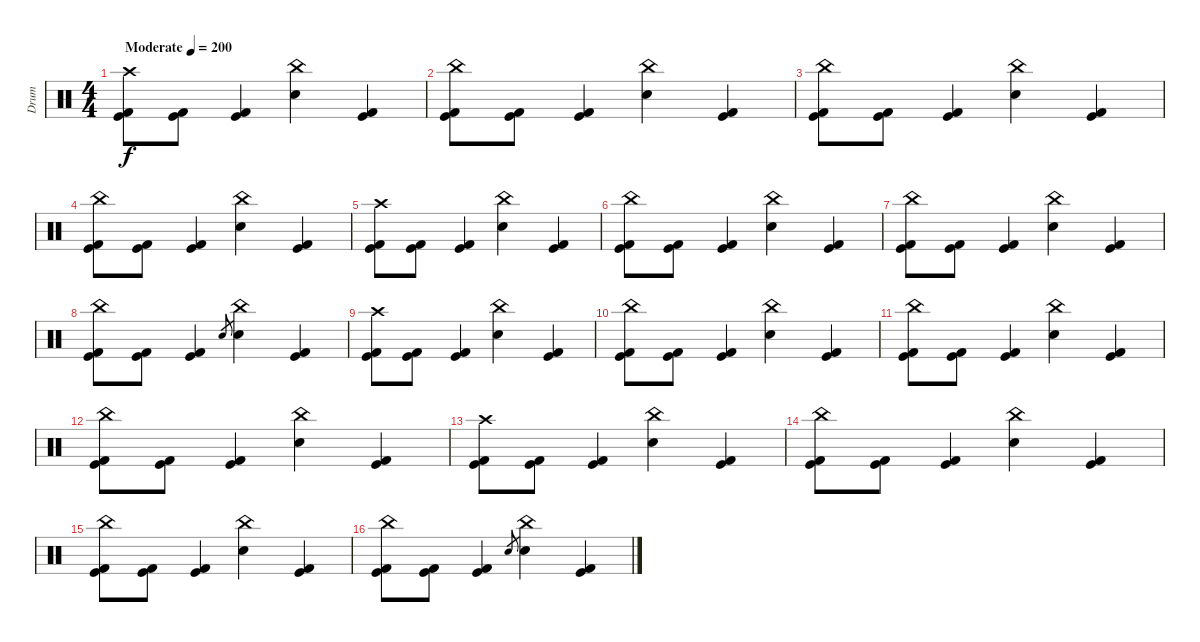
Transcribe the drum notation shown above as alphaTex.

\track ("Drum" "Drum") {instrument percussion}
\staff {score}
\articulation defaults
\ts (4 4)
\tempo (200 "Moderate")
\clef neutral
\ks c
("Crash high (hit)" "Kick (hit)" "Kick (hit) 2").8{dy f} ("Kick (hit)" "Kick (hit) 2").8 ("Kick (hit)" "Kick (hit) 2").4 ("China (hit)" "Electric Snare (hit)").4 ("Kick (hit)" "Kick (hit) 2").4 |
("China (hit)" "Kick (hit)" "Kick (hit) 2").8 ("Kick (hit)" "Kick (hit) 2").8 ("Kick (hit)" "Kick (hit) 2").4 ("China (hit)" "Electric Snare (hit)").4 ("Kick (hit)" "Kick (hit) 2").4 |
("China (hit)" "Kick (hit)" "Kick (hit) 2").8 ("Kick (hit)" "Kick (hit) 2").8 ("Kick (hit)" "Kick (hit) 2").4 ("China (hit)" "Electric Snare (hit)").4 ("Kick (hit)" "Kick (hit) 2").4 |
("China (hit)" "Kick (hit)" "Kick (hit) 2").8 ("Kick (hit)" "Kick (hit) 2").8 ("Kick (hit)" "Kick (hit) 2").4 ("China (hit)" "Electric Snare (hit)").4 ("Kick (hit)" "Kick (hit) 2").4 |
("Crash high (hit)" "Kick (hit)" "Kick (hit) 2").8 ("Kick (hit)" "Kick (hit) 2").8 ("Kick (hit)" "Kick (hit) 2").4 ("China (hit)" "Electric Snare (hit)").4 ("Kick (hit)" "Kick (hit) 2").4 |
("China (hit)" "Kick (hit)" "Kick (hit) 2").8 ("Kick (hit)" "Kick (hit) 2").8 ("Kick (hit)" "Kick (hit) 2").4 ("China (hit)" "Electric Snare (hit)").4 ("Kick (hit)" "Kick (hit) 2").4 |
("China (hit)" "Kick (hit)" "Kick (hit) 2").8 ("Kick (hit)" "Kick (hit) 2").8 ("Kick (hit)" "Kick (hit) 2").4 ("China (hit)" "Electric Snare (hit)").4 ("Kick (hit)" "Kick (hit) 2").4 |
("China (hit)" "Kick (hit)" "Kick (hit) 2").8 ("Kick (hit)" "Kick (hit) 2").8 ("Kick (hit)" "Kick (hit) 2").4 "Electric Snare (hit)".8{gr} ("China (hit)" "Electric Snare (hit)").4 ("Kick (hit)" "Kick (hit) 2").4 |
("Crash high (hit)" "Kick (hit)" "Kick (hit) 2").8 ("Kick (hit)" "Kick (hit) 2").8 ("Kick (hit)" "Kick (hit) 2").4 ("China (hit)" "Electric Snare (hit)").4 ("Kick (hit)" "Kick (hit) 2").4 |
("China (hit)" "Kick (hit)" "Kick (hit) 2").8 ("Kick (hit)" "Kick (hit) 2").8 ("Kick (hit)" "Kick (hit) 2").4 ("China (hit)" "Electric Snare (hit)").4 ("Kick (hit)" "Kick (hit) 2").4 |
("China (hit)" "Kick (hit)" "Kick (hit) 2").8 ("Kick (hit)" "Kick (hit) 2").8 ("Kick (hit)" "Kick (hit) 2").4 ("China (hit)" "Electric Snare (hit)").4 ("Kick (hit)" "Kick (hit) 2").4 |
("China (hit)" "Kick (hit)" "Kick (hit) 2").8 ("Kick (hit)" "Kick (hit) 2").8 ("Kick (hit)" "Kick (hit) 2").4 ("China (hit)" "Electric Snare (hit)").4 ("Kick (hit)" "Kick (hit) 2").4 |
("Crash high (hit)" "Kick (hit)" "Kick (hit) 2").8 ("Kick (hit)" "Kick (hit) 2").8 ("Kick (hit)" "Kick (hit) 2").4 ("China (hit)" "Electric Snare (hit)").4 ("Kick (hit)" "Kick (hit) 2").4 |
("China (hit)" "Kick (hit)" "Kick (hit) 2").8 ("Kick (hit)" "Kick (hit) 2").8 ("Kick (hit)" "Kick (hit) 2").4 ("China (hit)" "Electric Snare (hit)").4 ("Kick (hit)" "Kick (hit) 2").4 |
("China (hit)" "Kick (hit)" "Kick (hit) 2").8 ("Kick (hit)" "Kick (hit) 2").8 ("Kick (hit)" "Kick (hit) 2").4 ("China (hit)" "Electric Snare (hit)").4 ("Kick (hit)" "Kick (hit) 2").4 |
("China (hit)" "Kick (hit)" "Kick (hit) 2").8 ("Kick (hit)" "Kick (hit) 2").8 ("Kick (hit)" "Kick (hit) 2").4 "Electric Snare (hit)".8{gr} ("China (hit)" "Electric Snare (hit)").4 ("Kick (hit)" "Kick (hit) 2").4
